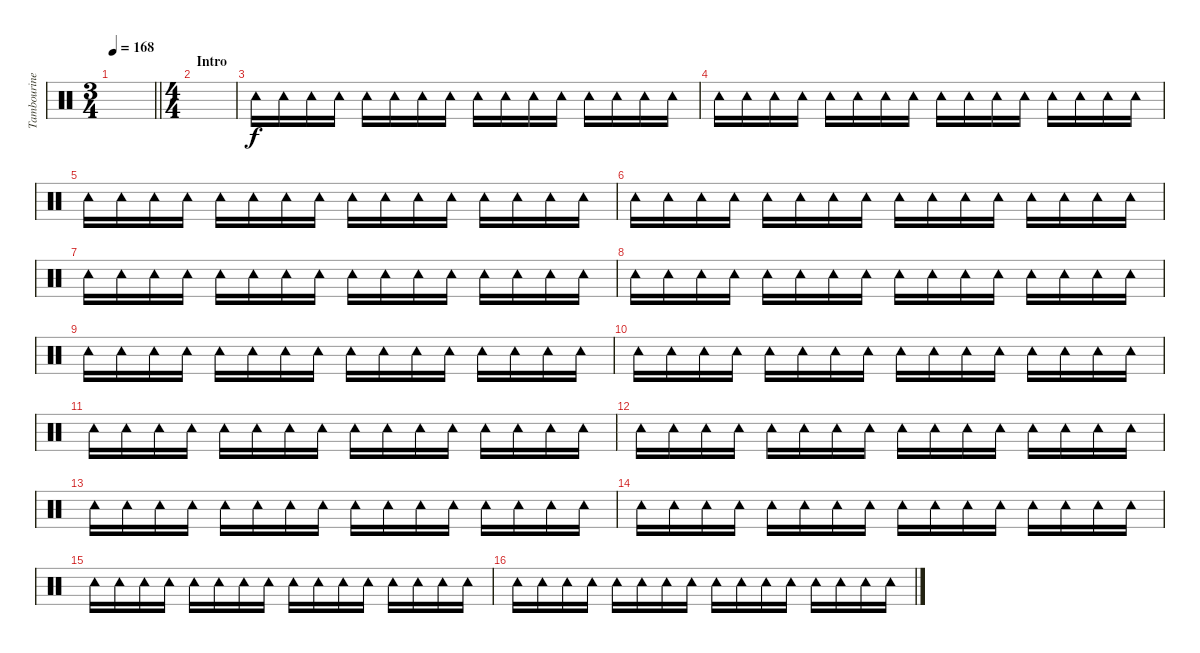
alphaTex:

\track ("Tambourine" "Tambourine") {instrument percussion}
\staff {score}
\articulation defaults
\ts (3 4)
\tempo 168
\clef neutral
\barLineRight lightlight
\ks c
|
\ts (4 4)
\section ("" "Intro")
|
"Tambourine (hit)".16 "Tambourine (hit)".16 "Tambourine (hit)".16 "Tambourine (hit)".16 "Tambourine (hit)".16 "Tambourine (hit)".16 "Tambourine (hit)".16 "Tambourine (hit)".16 "Tambourine (hit)".16 "Tambourine (hit)".16 "Tambourine (hit)".16 "Tambourine (hit)".16 "Tambourine (hit)".16 "Tambourine (hit)".16 "Tambourine (hit)".16 "Tambourine (hit)".16 |
"Tambourine (hit)".16 "Tambourine (hit)".16 "Tambourine (hit)".16 "Tambourine (hit)".16 "Tambourine (hit)".16 "Tambourine (hit)".16 "Tambourine (hit)".16 "Tambourine (hit)".16 "Tambourine (hit)".16 "Tambourine (hit)".16 "Tambourine (hit)".16 "Tambourine (hit)".16 "Tambourine (hit)".16 "Tambourine (hit)".16 "Tambourine (hit)".16 "Tambourine (hit)".16 |
"Tambourine (hit)".16 "Tambourine (hit)".16 "Tambourine (hit)".16 "Tambourine (hit)".16 "Tambourine (hit)".16 "Tambourine (hit)".16 "Tambourine (hit)".16 "Tambourine (hit)".16 "Tambourine (hit)".16 "Tambourine (hit)".16 "Tambourine (hit)".16 "Tambourine (hit)".16 "Tambourine (hit)".16 "Tambourine (hit)".16 "Tambourine (hit)".16 "Tambourine (hit)".16 |
"Tambourine (hit)".16 "Tambourine (hit)".16 "Tambourine (hit)".16 "Tambourine (hit)".16 "Tambourine (hit)".16 "Tambourine (hit)".16 "Tambourine (hit)".16 "Tambourine (hit)".16 "Tambourine (hit)".16 "Tambourine (hit)".16 "Tambourine (hit)".16 "Tambourine (hit)".16 "Tambourine (hit)".16 "Tambourine (hit)".16 "Tambourine (hit)".16 "Tambourine (hit)".16 |
"Tambourine (hit)".16 "Tambourine (hit)".16 "Tambourine (hit)".16 "Tambourine (hit)".16 "Tambourine (hit)".16 "Tambourine (hit)".16 "Tambourine (hit)".16 "Tambourine (hit)".16 "Tambourine (hit)".16 "Tambourine (hit)".16 "Tambourine (hit)".16 "Tambourine (hit)".16 "Tambourine (hit)".16 "Tambourine (hit)".16 "Tambourine (hit)".16 "Tambourine (hit)".16 |
"Tambourine (hit)".16 "Tambourine (hit)".16 "Tambourine (hit)".16 "Tambourine (hit)".16 "Tambourine (hit)".16 "Tambourine (hit)".16 "Tambourine (hit)".16 "Tambourine (hit)".16 "Tambourine (hit)".16 "Tambourine (hit)".16 "Tambourine (hit)".16 "Tambourine (hit)".16 "Tambourine (hit)".16 "Tambourine (hit)".16 "Tambourine (hit)".16 "Tambourine (hit)".16 |
"Tambourine (hit)".16 "Tambourine (hit)".16 "Tambourine (hit)".16 "Tambourine (hit)".16 "Tambourine (hit)".16 "Tambourine (hit)".16 "Tambourine (hit)".16 "Tambourine (hit)".16 "Tambourine (hit)".16 "Tambourine (hit)".16 "Tambourine (hit)".16 "Tambourine (hit)".16 "Tambourine (hit)".16 "Tambourine (hit)".16 "Tambourine (hit)".16 "Tambourine (hit)".16 |
"Tambourine (hit)".16 "Tambourine (hit)".16 "Tambourine (hit)".16 "Tambourine (hit)".16 "Tambourine (hit)".16 "Tambourine (hit)".16 "Tambourine (hit)".16 "Tambourine (hit)".16 "Tambourine (hit)".16 "Tambourine (hit)".16 "Tambourine (hit)".16 "Tambourine (hit)".16 "Tambourine (hit)".16 "Tambourine (hit)".16 "Tambourine (hit)".16 "Tambourine (hit)".16 |
"Tambourine (hit)".16 "Tambourine (hit)".16 "Tambourine (hit)".16 "Tambourine (hit)".16 "Tambourine (hit)".16 "Tambourine (hit)".16 "Tambourine (hit)".16 "Tambourine (hit)".16 "Tambourine (hit)".16 "Tambourine (hit)".16 "Tambourine (hit)".16 "Tambourine (hit)".16 "Tambourine (hit)".16 "Tambourine (hit)".16 "Tambourine (hit)".16 "Tambourine (hit)".16 |
"Tambourine (hit)".16 "Tambourine (hit)".16 "Tambourine (hit)".16 "Tambourine (hit)".16 "Tambourine (hit)".16 "Tambourine (hit)".16 "Tambourine (hit)".16 "Tambourine (hit)".16 "Tambourine (hit)".16 "Tambourine (hit)".16 "Tambourine (hit)".16 "Tambourine (hit)".16 "Tambourine (hit)".16 "Tambourine (hit)".16 "Tambourine (hit)".16 "Tambourine (hit)".16 |
"Tambourine (hit)".16 "Tambourine (hit)".16 "Tambourine (hit)".16 "Tambourine (hit)".16 "Tambourine (hit)".16 "Tambourine (hit)".16 "Tambourine (hit)".16 "Tambourine (hit)".16 "Tambourine (hit)".16 "Tambourine (hit)".16 "Tambourine (hit)".16 "Tambourine (hit)".16 "Tambourine (hit)".16 "Tambourine (hit)".16 "Tambourine (hit)".16 "Tambourine (hit)".16 |
"Tambourine (hit)".16 "Tambourine (hit)".16 "Tambourine (hit)".16 "Tambourine (hit)".16 "Tambourine (hit)".16 "Tambourine (hit)".16 "Tambourine (hit)".16 "Tambourine (hit)".16 "Tambourine (hit)".16 "Tambourine (hit)".16 "Tambourine (hit)".16 "Tambourine (hit)".16 "Tambourine (hit)".16 "Tambourine (hit)".16 "Tambourine (hit)".16 "Tambourine (hit)".16 |
"Tambourine (hit)".16 "Tambourine (hit)".16 "Tambourine (hit)".16 "Tambourine (hit)".16 "Tambourine (hit)".16 "Tambourine (hit)".16 "Tambourine (hit)".16 "Tambourine (hit)".16 "Tambourine (hit)".16 "Tambourine (hit)".16 "Tambourine (hit)".16 "Tambourine (hit)".16 "Tambourine (hit)".16 "Tambourine (hit)".16 "Tambourine (hit)".16 "Tambourine (hit)".16 |
"Tambourine (hit)".16 "Tambourine (hit)".16 "Tambourine (hit)".16 "Tambourine (hit)".16 "Tambourine (hit)".16 "Tambourine (hit)".16 "Tambourine (hit)".16 "Tambourine (hit)".16 "Tambourine (hit)".16 "Tambourine (hit)".16 "Tambourine (hit)".16 "Tambourine (hit)".16 "Tambourine (hit)".16 "Tambourine (hit)".16 "Tambourine (hit)".16 "Tambourine (hit)".16
